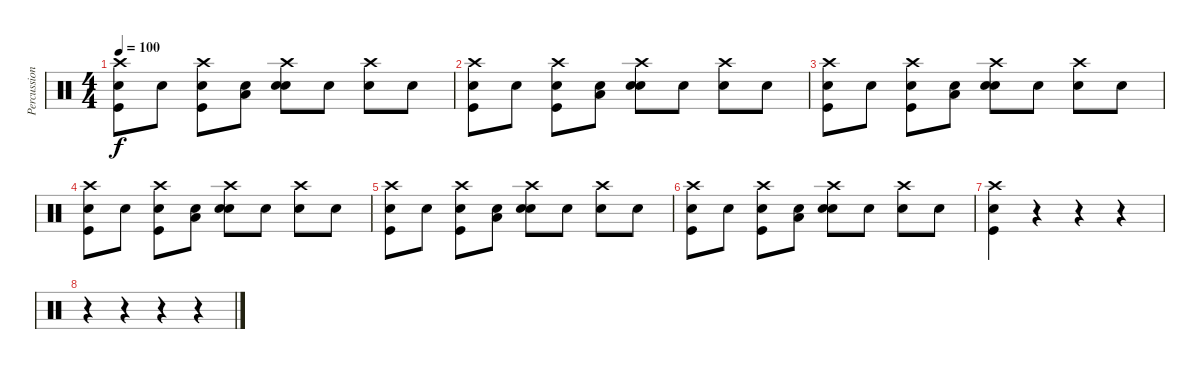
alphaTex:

\track ("Percussions" "Percussion") {instrument percussion}
\staff {score}
\articulation defaults
\ts (4 4)
\tempo 100
\clef neutral
\ks c
("Crash high (hit)" "Kick (hit)" "Snare (hit) 2").8{dy f} "Snare (hit) 2".8 ("Crash high (hit)" "Kick (hit)" "Snare (hit) 2").8 ("Low Tom (hit)" "Snare (hit) 2").8 ("Hand Clap (hit)" "Crash high (hit)" "Snare (hit) 2").8 "Snare (hit) 2".8 ("Crash high (hit)" "Snare (hit) 2").8 "Snare (hit) 2".8 |
("Crash high (hit)" "Kick (hit)" "Snare (hit) 2").8 "Snare (hit) 2".8 ("Crash high (hit)" "Kick (hit)" "Snare (hit) 2").8 ("Low Tom (hit)" "Snare (hit) 2").8 ("Hand Clap (hit)" "Crash high (hit)" "Snare (hit) 2").8 "Snare (hit) 2".8 ("Crash high (hit)" "Snare (hit) 2").8 "Snare (hit) 2".8 |
("Crash high (hit)" "Kick (hit)" "Snare (hit) 2").8 "Snare (hit) 2".8 ("Crash high (hit)" "Kick (hit)" "Snare (hit) 2").8 ("Low Tom (hit)" "Snare (hit) 2").8 ("Hand Clap (hit)" "Crash high (hit)" "Snare (hit) 2").8 "Snare (hit) 2".8 ("Crash high (hit)" "Snare (hit) 2").8 "Snare (hit) 2".8 |
("Crash high (hit)" "Kick (hit)" "Snare (hit) 2").8 "Snare (hit) 2".8 ("Crash high (hit)" "Kick (hit)" "Snare (hit) 2").8 ("Low Tom (hit)" "Snare (hit) 2").8 ("Hand Clap (hit)" "Crash high (hit)" "Snare (hit) 2").8 "Snare (hit) 2".8 ("Crash high (hit)" "Snare (hit) 2").8 "Snare (hit) 2".8 |
("Crash high (hit)" "Kick (hit)" "Snare (hit) 2").8 "Snare (hit) 2".8 ("Crash high (hit)" "Kick (hit)" "Snare (hit) 2").8 ("Low Tom (hit)" "Snare (hit) 2").8 ("Hand Clap (hit)" "Crash high (hit)" "Snare (hit) 2").8 "Snare (hit) 2".8 ("Crash high (hit)" "Snare (hit) 2").8 "Snare (hit) 2".8 |
("Crash high (hit)" "Kick (hit)" "Snare (hit) 2").8 "Snare (hit) 2".8 ("Crash high (hit)" "Kick (hit)" "Snare (hit) 2").8 ("Low Tom (hit)" "Snare (hit) 2").8 ("Hand Clap (hit)" "Crash high (hit)" "Snare (hit) 2").8 "Snare (hit) 2".8 ("Crash high (hit)" "Snare (hit) 2").8 "Snare (hit) 2".8 |
("Crash high (hit)" "Hand Clap (hit)" "Kick (hit)").4 r.4 r.4 r.4 |
r.4 r.4 r.4 r.4
